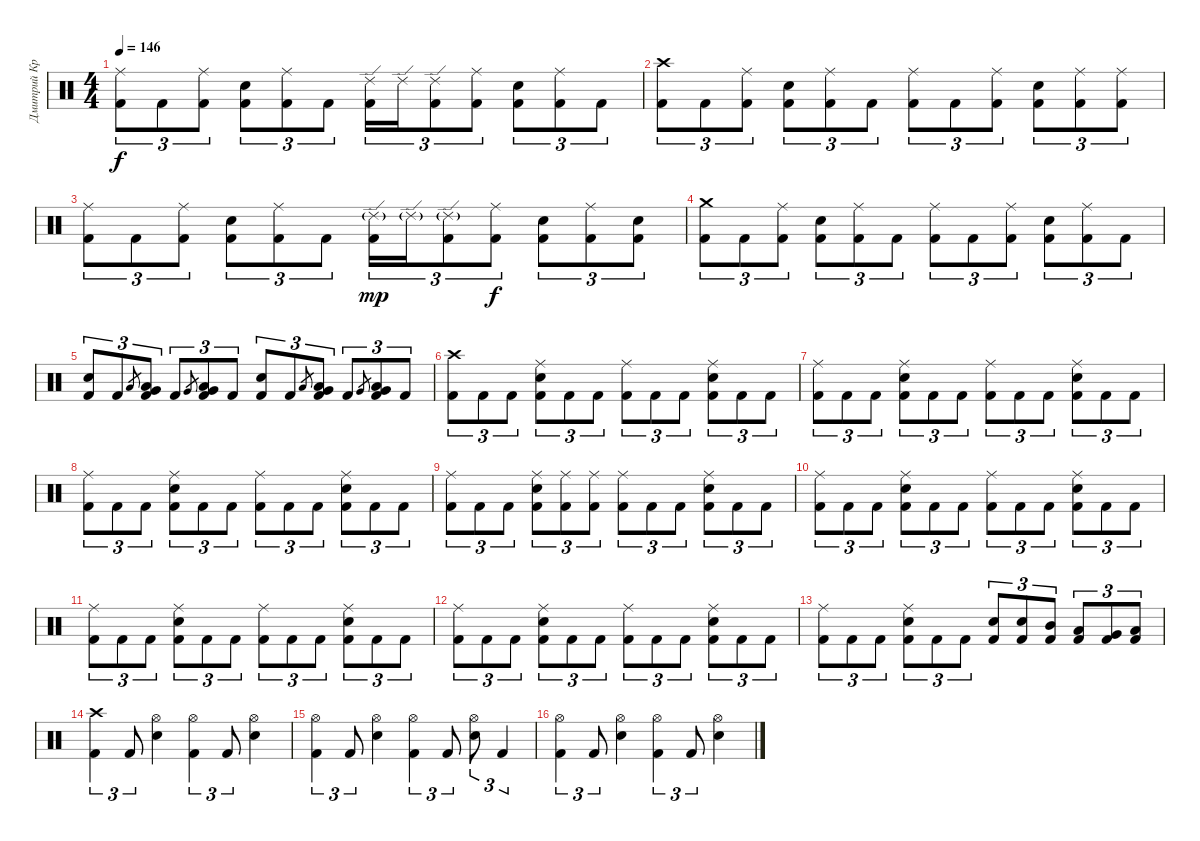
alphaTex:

\track ("Дмитрий Кривенков" "Дмитрий Кр") {instrument percussion}
\staff {score}
\articulation defaults
\ts (4 4)
\tempo 146
\clef neutral
\ks c
("Ride (middle)" "Kick (hit) 2").8{tu (3 2) dy f} "Kick (hit) 2".8{tu (3 2)} ("Ride (middle)" "Kick (hit) 2").8{tu (3 2)} ("Electric Snare (hit)" "Kick (hit) 2").8{tu (3 2)} ("Ride (middle)" "Kick (hit) 2").8{tu (3 2)} "Kick (hit) 2".8{tu (3 2)} ("Ride (edge) 2" "Kick (hit) 2").16{tu (3 2)} "Ride (edge) 2".16{tu (3 2)} ("Ride (edge) 2" "Kick (hit) 2").8{tu (3 2)} ("Ride (middle)" "Kick (hit) 2").8{tu (3 2)} ("Electric Snare (hit)" "Kick (hit) 2").8{tu (3 2)} ("Ride (middle)" "Kick (hit) 2").8{tu (3 2)} "Kick (hit) 2".8{tu (3 2)} |
("Crash high (hit)" "Kick (hit) 2").8{tu (3 2)} "Kick (hit) 2".8{tu (3 2)} ("Ride (middle)" "Kick (hit) 2").8{tu (3 2)} ("Electric Snare (hit)" "Kick (hit) 2").8{tu (3 2)} ("Ride (middle)" "Kick (hit) 2").8{tu (3 2)} "Kick (hit) 2".8{tu (3 2)} ("Ride (middle)" "Kick (hit) 2").8{tu (3 2)} "Kick (hit) 2".8{tu (3 2)} ("Ride (middle)" "Kick (hit) 2").8{tu (3 2)} ("Electric Snare (hit)" "Kick (hit) 2").8{tu (3 2)} ("Ride (middle)" "Kick (hit) 2").8{tu (3 2)} ("Ride (middle)" "Kick (hit) 2").8{tu (3 2)} |
("Ride (middle)" "Kick (hit) 2").8{tu (3 2)} "Kick (hit) 2".8{tu (3 2)} ("Ride (middle)" "Kick (hit) 2").8{tu (3 2)} ("Electric Snare (hit)" "Kick (hit) 2").8{tu (3 2)} ("Ride (middle)" "Kick (hit) 2").8{tu (3 2)} "Kick (hit) 2".8{tu (3 2)} ("Ride (edge) 2"{g} "Kick (hit) 2").16{tu (3 2) dy mp} "Ride (edge) 2"{g}.16{tu (3 2)} ("Ride (edge) 2"{g} "Kick (hit) 2").8{tu (3 2)} ("Ride (middle)" "Kick (hit) 2").8{tu (3 2) dy f} ("Electric Snare (hit)" "Kick (hit) 2").8{tu (3 2)} ("Ride (middle)" "Kick (hit) 2").8{tu (3 2)} ("Electric Snare (hit)" "Kick (hit) 2").8{tu (3 2)} |
("Crash medium (hit)" "Kick (hit) 2").8{tu (3 2)} "Kick (hit) 2".8{tu (3 2)} ("Ride (middle)" "Kick (hit) 2").8{tu (3 2)} ("Electric Snare (hit)" "Kick (hit) 2").8{tu (3 2)} ("Ride (middle)" "Kick (hit) 2").8{tu (3 2)} "Kick (hit) 2".8{tu (3 2)} ("Ride (middle)" "Kick (hit) 2").8{tu (3 2)} "Kick (hit) 2".8{tu (3 2)} ("Ride (middle)" "Kick (hit) 2").8{tu (3 2)} ("Electric Snare (hit)" "Kick (hit) 2").8{tu (3 2)} ("Ride (middle)" "Kick (hit) 2").8{tu (3 2)} "Kick (hit) 2".8{tu (3 2)} |
("Electric Snare (hit)" "Kick (hit) 2").8{tu (3 2)} "Kick (hit) 2".8{tu (3 2)} "Low Tom (hit)".8{gr} ("Low Tom (hit)" "Very Low Tom (hit)" "Kick (hit) 2").8{tu (3 2)} "Kick (hit) 2".8{tu (3 2)} "Very Low Tom (hit)".8{gr} ("Very Low Tom (hit)" "Low Floor Tom (hit)" "Kick (hit) 2").8{tu (3 2)} "Kick (hit) 2".8{tu (3 2)} ("Electric Snare (hit)" "Kick (hit) 2").8{tu (3 2)} "Kick (hit) 2".8{tu (3 2)} "Low Tom (hit)".8{gr} ("Low Tom (hit)" "Very Low Tom (hit)" "Kick (hit) 2").8{tu (3 2)} "Kick (hit) 2".8{tu (3 2)} "Very Low Tom (hit)".8{gr} ("Very Low Tom (hit)" "Low Floor Tom (hit)" "Kick (hit) 2").8{tu (3 2)} "Kick (hit) 2".8{tu (3 2)} |
("Crash high (hit)" "Kick (hit) 2").8{tu (3 2)} "Kick (hit) 2".8{tu (3 2)} "Kick (hit) 2".8{tu (3 2)} ("Ride (middle)" "Electric Snare (hit)" "Kick (hit) 2").8{tu (3 2)} "Kick (hit) 2".8{tu (3 2)} "Kick (hit) 2".8{tu (3 2)} ("Ride (middle)" "Kick (hit) 2").8{tu (3 2)} "Kick (hit) 2".8{tu (3 2)} "Kick (hit) 2".8{tu (3 2)} ("Ride (middle)" "Electric Snare (hit)" "Kick (hit) 2").8{tu (3 2)} "Kick (hit) 2".8{tu (3 2)} "Kick (hit) 2".8{tu (3 2)} |
("Ride (middle)" "Kick (hit) 2").8{tu (3 2)} "Kick (hit) 2".8{tu (3 2)} "Kick (hit) 2".8{tu (3 2)} ("Ride (middle)" "Electric Snare (hit)" "Kick (hit) 2").8{tu (3 2)} "Kick (hit) 2".8{tu (3 2)} "Kick (hit) 2".8{tu (3 2)} ("Ride (middle)" "Kick (hit) 2").8{tu (3 2)} "Kick (hit) 2".8{tu (3 2)} "Kick (hit) 2".8{tu (3 2)} ("Ride (middle)" "Electric Snare (hit)" "Kick (hit) 2").8{tu (3 2)} "Kick (hit) 2".8{tu (3 2)} "Kick (hit) 2".8{tu (3 2)} |
("Ride (middle)" "Kick (hit) 2").8{tu (3 2)} "Kick (hit) 2".8{tu (3 2)} "Kick (hit) 2".8{tu (3 2)} ("Ride (middle)" "Electric Snare (hit)" "Kick (hit) 2").8{tu (3 2)} "Kick (hit) 2".8{tu (3 2)} "Kick (hit) 2".8{tu (3 2)} ("Ride (middle)" "Kick (hit) 2").8{tu (3 2)} "Kick (hit) 2".8{tu (3 2)} "Kick (hit) 2".8{tu (3 2)} ("Ride (middle)" "Electric Snare (hit)" "Kick (hit) 2").8{tu (3 2)} "Kick (hit) 2".8{tu (3 2)} "Kick (hit) 2".8{tu (3 2)} |
("Ride (middle)" "Kick (hit) 2").8{tu (3 2)} "Kick (hit) 2".8{tu (3 2)} "Kick (hit) 2".8{tu (3 2)} ("Ride (middle)" "Electric Snare (hit)" "Kick (hit) 2").8{tu (3 2)} ("Ride (middle)" "Kick (hit) 2").8{tu (3 2)} ("Ride (middle)" "Kick (hit) 2").8{tu (3 2)} ("Ride (middle)" "Kick (hit) 2").8{tu (3 2)} "Kick (hit) 2".8{tu (3 2)} "Kick (hit) 2".8{tu (3 2)} ("Ride (middle)" "Electric Snare (hit)" "Kick (hit) 2").8{tu (3 2)} "Kick (hit) 2".8{tu (3 2)} "Kick (hit) 2".8{tu (3 2)} |
("Ride (middle)" "Kick (hit) 2").8{tu (3 2)} "Kick (hit) 2".8{tu (3 2)} "Kick (hit) 2".8{tu (3 2)} ("Ride (middle)" "Electric Snare (hit)" "Kick (hit) 2").8{tu (3 2)} "Kick (hit) 2".8{tu (3 2)} "Kick (hit) 2".8{tu (3 2)} ("Ride (middle)" "Kick (hit) 2").8{tu (3 2)} "Kick (hit) 2".8{tu (3 2)} "Kick (hit) 2".8{tu (3 2)} ("Ride (middle)" "Electric Snare (hit)" "Kick (hit) 2").8{tu (3 2)} "Kick (hit) 2".8{tu (3 2)} "Kick (hit) 2".8{tu (3 2)} |
("Ride (middle)" "Kick (hit) 2").8{tu (3 2)} "Kick (hit) 2".8{tu (3 2)} "Kick (hit) 2".8{tu (3 2)} ("Ride (middle)" "Electric Snare (hit)" "Kick (hit) 2").8{tu (3 2)} "Kick (hit) 2".8{tu (3 2)} "Kick (hit) 2".8{tu (3 2)} ("Ride (middle)" "Kick (hit) 2").8{tu (3 2)} "Kick (hit) 2".8{tu (3 2)} "Kick (hit) 2".8{tu (3 2)} ("Ride (middle)" "Electric Snare (hit)" "Kick (hit) 2").8{tu (3 2)} "Kick (hit) 2".8{tu (3 2)} "Kick (hit) 2".8{tu (3 2)} |
("Ride (middle)" "Kick (hit) 2").8{tu (3 2)} "Kick (hit) 2".8{tu (3 2)} "Kick (hit) 2".8{tu (3 2)} ("Ride (middle)" "Electric Snare (hit)" "Kick (hit) 2").8{tu (3 2)} "Kick (hit) 2".8{tu (3 2)} "Kick (hit) 2".8{tu (3 2)} ("Ride (middle)" "Kick (hit) 2").8{tu (3 2)} "Kick (hit) 2".8{tu (3 2)} "Kick (hit) 2".8{tu (3 2)} ("Ride (middle)" "Electric Snare (hit)" "Kick (hit) 2").8{tu (3 2)} "Kick (hit) 2".8{tu (3 2)} "Kick (hit) 2".8{tu (3 2)} |
("Ride (middle)" "Kick (hit) 2").8{tu (3 2)} "Kick (hit) 2".8{tu (3 2)} "Kick (hit) 2".8{tu (3 2)} ("Ride (middle)" "Electric Snare (hit)" "Kick (hit) 2").8{tu (3 2)} "Kick (hit) 2".8{tu (3 2)} "Kick (hit) 2".8{tu (3 2)} ("Electric Snare (hit)" "Kick (hit) 2").8{tu (3 2)} ("Electric Snare (hit)" "Kick (hit) 2").8{tu (3 2)} ("Mid Tom (hit)" "Kick (hit) 2").8{tu (3 2)} ("Low Tom (hit)" "Kick (hit) 2").8{tu (3 2)} ("Very Low Tom (hit)" "Kick (hit) 2").8{tu (3 2)} ("Low Floor Tom (hit)" "Kick (hit) 2").8{tu (3 2)} |
("Crash high (hit)" "Kick (hit) 2").4{tu (3 2)} "Kick (hit) 2".8{tu (3 2)} ("Hi-Hat (open)" "Electric Snare (hit)").4 ("Hi-Hat (open)" "Kick (hit) 2").4{tu (3 2)} "Kick (hit) 2".8{tu (3 2)} ("Hi-Hat (open)" "Electric Snare (hit)").4 |
("Hi-Hat (open)" "Kick (hit) 2").4{tu (3 2)} "Kick (hit) 2".8{tu (3 2)} ("Hi-Hat (open)" "Electric Snare (hit)").4 ("Hi-Hat (open)" "Kick (hit) 2").4{tu (3 2)} "Kick (hit) 2".8{tu (3 2)} ("Hi-Hat (open)" "Electric Snare (hit)").8{tu (3 2)} "Kick (hit) 2".4{tu (3 2)} |
("Hi-Hat (open)" "Kick (hit) 2").4{tu (3 2)} "Kick (hit) 2".8{tu (3 2)} ("Hi-Hat (open)" "Electric Snare (hit)").4 ("Hi-Hat (open)" "Kick (hit) 2").4{tu (3 2)} "Kick (hit) 2".8{tu (3 2)} ("Hi-Hat (open)" "Electric Snare (hit)").4
